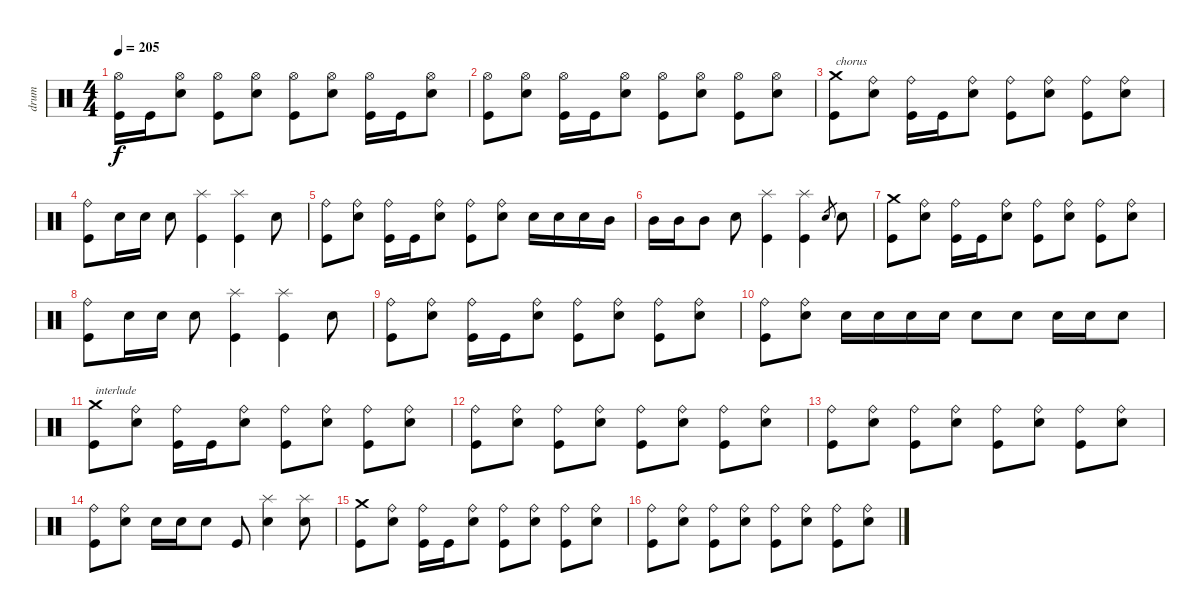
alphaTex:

\track ("drum" "drum") {instrument percussion}
\staff {score}
\articulation defaults
\ts (4 4)
\tempo 205
\clef neutral
\ks c
("Kick (hit)" "Hi-Hat (open)").16{dy f} "Kick (hit)".16 ("Electric Snare (hit)" "Hi-Hat (open)").8 ("Kick (hit)" "Hi-Hat (open)").8 ("Electric Snare (hit)" "Hi-Hat (open)").8 ("Kick (hit)" "Hi-Hat (open)").8 ("Electric Snare (hit)" "Hi-Hat (open)").8 ("Kick (hit)" "Hi-Hat (open)").16 "Kick (hit)".16 ("Electric Snare (hit)" "Hi-Hat (open)").8 |
("Kick (hit)" "Hi-Hat (open)").8 ("Electric Snare (hit)" "Hi-Hat (open)").8 ("Kick (hit)" "Hi-Hat (open)").16 "Kick (hit)".16 ("Electric Snare (hit)" "Hi-Hat (open)").8 ("Kick (hit)" "Hi-Hat (open)").8 ("Electric Snare (hit)" "Hi-Hat (open)").8 ("Kick (hit)" "Hi-Hat (open)").8 ("Electric Snare (hit)" "Hi-Hat (open)").8 |
("Kick (hit)" "Crash medium (hit)").8{txt "chorus"} ("Electric Snare (hit)" "Ride (bell)").8 ("Kick (hit)" "Ride (bell)").16 "Kick (hit)".16 ("Electric Snare (hit)" "Ride (bell)").8 ("Kick (hit)" "Ride (bell)").8 ("Electric Snare (hit)" "Ride (bell)").8 ("Kick (hit)" "Ride (bell)").8 ("Electric Snare (hit)" "Ride (bell)").8 |
("Kick (hit)" "Ride (bell)").8 "Electric Snare (hit)".16 "Electric Snare (hit)".16 "Electric Snare (hit)".8 ("Kick (hit)" "Splash (hit)").4 ("Kick (hit)" "Splash (hit)").4 "Electric Snare (hit)".8 |
("Kick (hit)" "Ride (bell)").8 ("Electric Snare (hit)" "Ride (bell)").8 ("Kick (hit)" "Ride (bell)").16 "Kick (hit)".16 ("Electric Snare (hit)" "Ride (bell)").8 ("Kick (hit)" "Ride (bell)").8 ("Electric Snare (hit)" "Ride (bell)").8 "Electric Snare (hit)".16 "Electric Snare (hit)".16 "Electric Snare (hit)".16 "Mid Tom (hit)".16 |
"Mid Tom (hit)".16 "Mid Tom (hit)".16 "Mid Tom (hit)".8 "Electric Snare (hit)".8 ("Kick (hit)" "Splash (hit)").4 ("Kick (hit)" "Splash (hit)").4 "Electric Snare (hit)".8{gr} "Electric Snare (hit)".8 |
("Kick (hit)" "Crash medium (hit)").8 ("Electric Snare (hit)" "Ride (bell)").8 ("Kick (hit)" "Ride (bell)").16 "Kick (hit)".16 ("Electric Snare (hit)" "Ride (bell)").8 ("Kick (hit)" "Ride (bell)").8 ("Electric Snare (hit)" "Ride (bell)").8 ("Kick (hit)" "Ride (bell)").8 ("Electric Snare (hit)" "Ride (bell)").8 |
("Kick (hit)" "Ride (bell)").8 "Electric Snare (hit)".16 "Electric Snare (hit)".16 "Electric Snare (hit)".8 ("Kick (hit)" "Splash (hit)").4 ("Kick (hit)" "Splash (hit)").4 "Electric Snare (hit)".8 |
("Kick (hit)" "Ride (bell)").8 ("Electric Snare (hit)" "Ride (bell)").8 ("Kick (hit)" "Ride (bell)").16 "Kick (hit)".16 ("Electric Snare (hit)" "Ride (bell)").8 ("Kick (hit)" "Ride (bell)").8 ("Electric Snare (hit)" "Ride (bell)").8 ("Kick (hit)" "Ride (bell)").8 ("Electric Snare (hit)" "Ride (bell)").8 |
("Kick (hit)" "Ride (bell)").8 ("Electric Snare (hit)" "Ride (bell)").8 "Electric Snare (hit)".16 "Electric Snare (hit)".16 "Electric Snare (hit)".16 "Electric Snare (hit)".16 "Electric Snare (hit)".8 "Electric Snare (hit)".8 "Electric Snare (hit)".16 "Electric Snare (hit)".16 "Electric Snare (hit)".8 |
("Kick (hit)" "Crash medium (hit)").8{txt "interlude"} ("Electric Snare (hit)" "Ride (bell)").8 ("Kick (hit)" "Ride (bell)").16 "Kick (hit)".16 ("Electric Snare (hit)" "Ride (bell)").8 ("Kick (hit)" "Ride (bell)").8 ("Electric Snare (hit)" "Ride (bell)").8 ("Kick (hit)" "Ride (bell)").8 ("Electric Snare (hit)" "Ride (bell)").8 |
("Kick (hit)" "Ride (bell)").8 ("Electric Snare (hit)" "Ride (bell)").8 ("Kick (hit)" "Ride (bell)").8 ("Electric Snare (hit)" "Ride (bell)").8 ("Kick (hit)" "Ride (bell)").8 ("Electric Snare (hit)" "Ride (bell)").8 ("Kick (hit)" "Ride (bell)").8 ("Electric Snare (hit)" "Ride (bell)").8 |
("Kick (hit)" "Ride (bell)").8 ("Electric Snare (hit)" "Ride (bell)").8 ("Kick (hit)" "Ride (bell)").8 ("Electric Snare (hit)" "Ride (bell)").8 ("Kick (hit)" "Ride (bell)").8 ("Electric Snare (hit)" "Ride (bell)").8 ("Kick (hit)" "Ride (bell)").8 ("Electric Snare (hit)" "Ride (bell)").8 |
("Kick (hit)" "Ride (bell)").8 ("Electric Snare (hit)" "Ride (bell)").8 "Electric Snare (hit)".16 "Electric Snare (hit)".16 "Electric Snare (hit)".8 "Kick (hit)".8 ("Electric Snare (hit)" "Splash (hit)").4 ("Electric Snare (hit)" "Splash (hit)").8 |
("Kick (hit)" "Crash medium (hit)").8 ("Electric Snare (hit)" "Ride (bell)").8 ("Kick (hit)" "Ride (bell)").16 "Kick (hit)".16 ("Electric Snare (hit)" "Ride (bell)").8 ("Kick (hit)" "Ride (bell)").8 ("Electric Snare (hit)" "Ride (bell)").8 ("Kick (hit)" "Ride (bell)").8 ("Electric Snare (hit)" "Ride (bell)").8 |
("Kick (hit)" "Ride (bell)").8 ("Electric Snare (hit)" "Ride (bell)").8 ("Kick (hit)" "Ride (bell)").8 ("Electric Snare (hit)" "Ride (bell)").8 ("Kick (hit)" "Ride (bell)").8 ("Electric Snare (hit)" "Ride (bell)").8 ("Kick (hit)" "Ride (bell)").8 ("Electric Snare (hit)" "Ride (bell)").8
